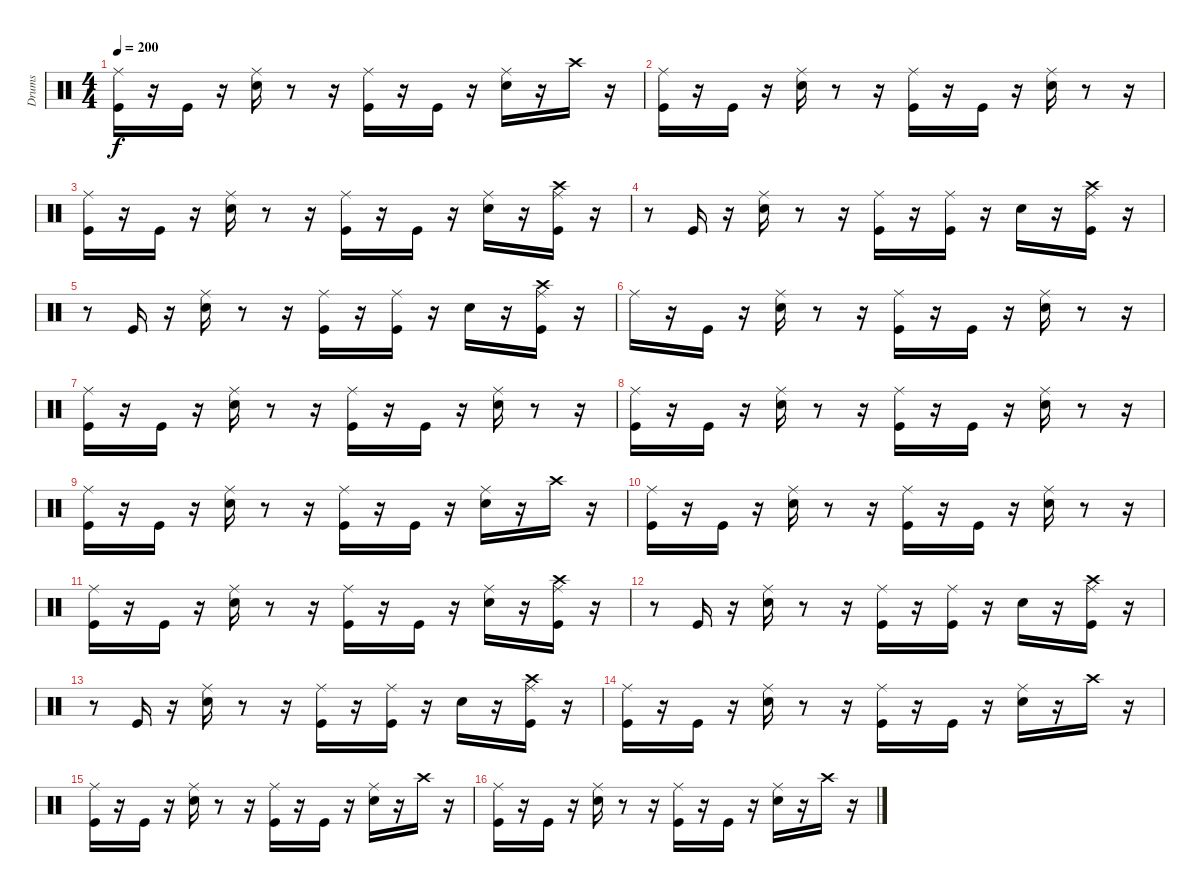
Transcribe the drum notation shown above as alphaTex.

\track ("Drums" "Drums") {instrument percussion}
\staff {score}
\articulation defaults
\ts (4 4)
\tempo 200
\clef neutral
\ks c
("Ride (middle)" "Kick (hit)").16{dy f} r.16 "Kick (hit)".16 r.16 ("Ride (middle)" "Snare (hit) 2").16 r.8 r.16 ("Ride (middle)" "Kick (hit)").16 r.16 "Kick (hit)".16 r.16 ("Ride (middle)" "Snare (hit) 2").16 r.16 "Crash high (hit)".16 r.16 |
("Ride (middle)" "Kick (hit)").16 r.16 "Kick (hit)".16 r.16 ("Ride (middle)" "Snare (hit) 2").16 r.8 r.16 ("Ride (middle)" "Kick (hit)").16 r.16 "Kick (hit)".16 r.16 ("Ride (middle)" "Snare (hit) 2").16 r.8 r.16 |
("Ride (middle)" "Kick (hit)").16 r.16 "Kick (hit)".16 r.16 ("Ride (middle)" "Snare (hit) 2").16 r.8 r.16 ("Ride (middle)" "Kick (hit)").16 r.16 "Kick (hit)".16 r.16 ("Ride (middle)" "Snare (hit) 2").16 r.16 ("Ride (middle)" "Crash high (hit)" "Kick (hit)").16 r.16 |
r.8 "Kick (hit)".16 r.16 ("Snare (hit) 2" "Ride (middle)").16 r.8 r.16 ("Ride (middle)" "Kick (hit)").16 r.16 ("Kick (hit)" "Ride (middle)").16 r.16 "Snare (hit) 2".16 r.16 ("Crash high (hit)" "Ride (middle)" "Kick (hit)").16 r.16 |
r.8 "Kick (hit)".16 r.16 ("Snare (hit) 2" "Ride (middle)").16 r.8 r.16 ("Kick (hit)" "Ride (middle)").16 r.16 ("Ride (middle)" "Kick (hit)").16 r.16 "Snare (hit) 2".16 r.16 ("Kick (hit)" "Crash high (hit)" "Ride (middle)").16 r.16 |
"Ride (middle)".16 r.16 "Kick (hit)".16 r.16 ("Ride (middle)" "Snare (hit) 2").16 r.8 r.16 ("Ride (middle)" "Kick (hit)").16 r.16 "Kick (hit)".16 r.16 ("Ride (middle)" "Snare (hit) 2").16 r.8 r.16 |
("Ride (middle)" "Kick (hit)").16 r.16 "Kick (hit)".16 r.16 ("Ride (middle)" "Snare (hit) 2").16 r.8 r.16 ("Ride (middle)" "Kick (hit)").16 r.16 "Kick (hit)".16 r.16 ("Ride (middle)" "Snare (hit) 2").16 r.8 r.16 |
("Ride (middle)" "Kick (hit)").16 r.16 "Kick (hit)".16 r.16 ("Snare (hit) 2" "Ride (middle)").16 r.8 r.16 ("Ride (middle)" "Kick (hit)").16 r.16 "Kick (hit)".16 r.16 ("Ride (middle)" "Snare (hit) 2").16 r.8 r.16 |
("Ride (middle)" "Kick (hit)").16 r.16 "Kick (hit)".16 r.16 ("Ride (middle)" "Snare (hit) 2").16 r.8 r.16 ("Ride (middle)" "Kick (hit)").16 r.16 "Kick (hit)".16 r.16 ("Ride (middle)" "Snare (hit) 2").16 r.16 "Crash high (hit)".16 r.16 |
("Ride (middle)" "Kick (hit)").16 r.16 "Kick (hit)".16 r.16 ("Ride (middle)" "Snare (hit) 2").16 r.8 r.16 ("Ride (middle)" "Kick (hit)").16 r.16 "Kick (hit)".16 r.16 ("Ride (middle)" "Snare (hit) 2").16 r.8 r.16 |
("Ride (middle)" "Kick (hit)").16 r.16 "Kick (hit)".16 r.16 ("Ride (middle)" "Snare (hit) 2").16 r.8 r.16 ("Ride (middle)" "Kick (hit)").16 r.16 "Kick (hit)".16 r.16 ("Ride (middle)" "Snare (hit) 2").16 r.16 ("Ride (middle)" "Crash high (hit)" "Kick (hit)").16 r.16 |
r.8 "Kick (hit)".16 r.16 ("Snare (hit) 2" "Ride (middle)").16 r.8 r.16 ("Ride (middle)" "Kick (hit)").16 r.16 ("Kick (hit)" "Ride (middle)").16 r.16 "Snare (hit) 2".16 r.16 ("Crash high (hit)" "Ride (middle)" "Kick (hit)").16 r.16 |
r.8 "Kick (hit)".16 r.16 ("Snare (hit) 2" "Ride (middle)").16 r.8 r.16 ("Kick (hit)" "Ride (middle)").16 r.16 ("Ride (middle)" "Kick (hit)").16 r.16 "Snare (hit) 2".16 r.16 ("Kick (hit)" "Crash high (hit)" "Ride (middle)").16 r.16 |
("Ride (middle)" "Kick (hit)").16 r.16 "Kick (hit)".16 r.16 ("Ride (middle)" "Snare (hit) 2").16 r.8 r.16 ("Kick (hit)" "Ride (middle)").16 r.16 "Kick (hit)".16 r.16 ("Ride (middle)" "Snare (hit) 2").16 r.16 "Crash high (hit)".16 r.16 |
("Ride (middle)" "Kick (hit)").16 r.16 "Kick (hit)".16 r.16 ("Ride (middle)" "Snare (hit) 2").16 r.8 r.16 ("Ride (middle)" "Kick (hit)").16 r.16 "Kick (hit)".16 r.16 ("Ride (middle)" "Snare (hit) 2").16 r.16 "Crash high (hit)".16 r.16 |
("Ride (middle)" "Kick (hit)").16 r.16 "Kick (hit)".16 r.16 ("Ride (middle)" "Snare (hit) 2").16 r.8 r.16 ("Ride (middle)" "Kick (hit)").16 r.16 "Kick (hit)".16 r.16 ("Ride (middle)" "Snare (hit) 2").16 r.16 "Crash high (hit)".16 r.16
